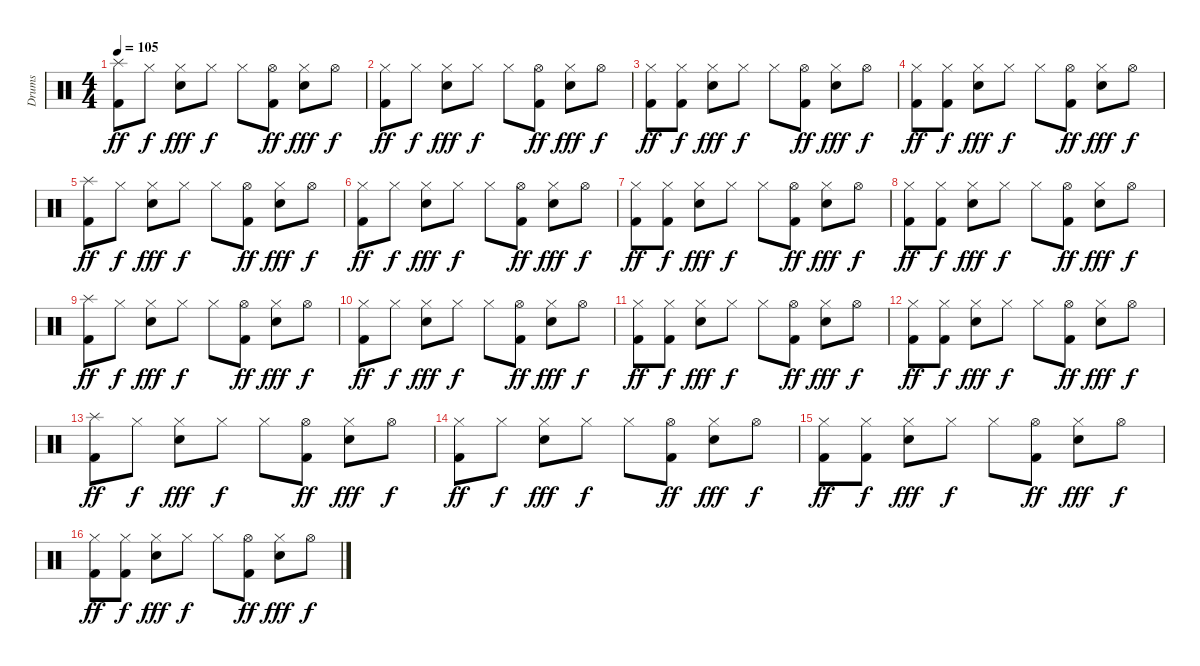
\track ("Drums" "Drums") {instrument percussion}
\staff {score}
\articulation defaults
\ts (4 4)
\tempo 105
\clef neutral
\ks c
("Splash (hit)" "Kick (hit) 2").8{dy ff} "Hi-Hat (closed)".8{dy f} ("Hi-Hat (closed)" "Electric Snare (hit)").8{dy fff} "Hi-Hat (closed)".8{dy f} "Hi-Hat (closed)".8 ("Hi-Hat (open)" "Kick (hit) 2").8{dy ff} ("Hi-Hat (closed)" "Electric Snare (hit)").8{dy fff} "Hi-Hat (open)".8{dy f} |
("Hi-Hat (closed)" "Kick (hit) 2").8{dy ff} "Hi-Hat (closed)".8{dy f} ("Hi-Hat (closed)" "Electric Snare (hit)").8{dy fff} "Hi-Hat (closed)".8{dy f} "Hi-Hat (closed)".8 ("Hi-Hat (open)" "Kick (hit) 2").8{dy ff} ("Hi-Hat (closed)" "Electric Snare (hit)").8{dy fff} "Hi-Hat (open)".8{dy f} |
("Hi-Hat (closed)" "Kick (hit) 2").8{dy ff} ("Hi-Hat (closed)" "Kick (hit) 2").8{dy f} ("Hi-Hat (closed)" "Electric Snare (hit)").8{dy fff} "Hi-Hat (closed)".8{dy f} "Hi-Hat (closed)".8 ("Hi-Hat (open)" "Kick (hit) 2").8{dy ff} ("Hi-Hat (closed)" "Electric Snare (hit)").8{dy fff} "Hi-Hat (open)".8{dy f} |
("Hi-Hat (closed)" "Kick (hit) 2").8{dy ff} ("Hi-Hat (closed)" "Kick (hit) 2").8{dy f} ("Hi-Hat (closed)" "Electric Snare (hit)").8{dy fff} "Hi-Hat (closed)".8{dy f} "Hi-Hat (closed)".8 ("Hi-Hat (open)" "Kick (hit) 2").8{dy ff} ("Hi-Hat (closed)" "Electric Snare (hit)").8{dy fff} "Hi-Hat (open)".8{dy f} |
("Splash (hit)" "Kick (hit) 2").8{dy ff} "Hi-Hat (closed)".8{dy f} ("Hi-Hat (closed)" "Electric Snare (hit)").8{dy fff} "Hi-Hat (closed)".8{dy f} "Hi-Hat (closed)".8 ("Hi-Hat (open)" "Kick (hit) 2").8{dy ff} ("Hi-Hat (closed)" "Electric Snare (hit)").8{dy fff} "Hi-Hat (open)".8{dy f} |
("Hi-Hat (closed)" "Kick (hit) 2").8{dy ff} "Hi-Hat (closed)".8{dy f} ("Hi-Hat (closed)" "Electric Snare (hit)").8{dy fff} "Hi-Hat (closed)".8{dy f} "Hi-Hat (closed)".8 ("Hi-Hat (open)" "Kick (hit) 2").8{dy ff} ("Hi-Hat (closed)" "Electric Snare (hit)").8{dy fff} "Hi-Hat (open)".8{dy f} |
("Hi-Hat (closed)" "Kick (hit) 2").8{dy ff} ("Hi-Hat (closed)" "Kick (hit) 2").8{dy f} ("Hi-Hat (closed)" "Electric Snare (hit)").8{dy fff} "Hi-Hat (closed)".8{dy f} "Hi-Hat (closed)".8 ("Hi-Hat (open)" "Kick (hit) 2").8{dy ff} ("Hi-Hat (closed)" "Electric Snare (hit)").8{dy fff} "Hi-Hat (open)".8{dy f} |
("Hi-Hat (closed)" "Kick (hit) 2").8{dy ff} ("Hi-Hat (closed)" "Kick (hit) 2").8{dy f} ("Hi-Hat (closed)" "Electric Snare (hit)").8{dy fff} "Hi-Hat (closed)".8{dy f} "Hi-Hat (closed)".8 ("Hi-Hat (open)" "Kick (hit) 2").8{dy ff} ("Hi-Hat (closed)" "Electric Snare (hit)").8{dy fff} "Hi-Hat (open)".8{dy f} |
("Splash (hit)" "Kick (hit) 2").8{dy ff} "Hi-Hat (closed)".8{dy f} ("Hi-Hat (closed)" "Electric Snare (hit)").8{dy fff} "Hi-Hat (closed)".8{dy f} "Hi-Hat (closed)".8 ("Hi-Hat (open)" "Kick (hit) 2").8{dy ff} ("Hi-Hat (closed)" "Electric Snare (hit)").8{dy fff} "Hi-Hat (open)".8{dy f} |
("Hi-Hat (closed)" "Kick (hit) 2").8{dy ff} "Hi-Hat (closed)".8{dy f} ("Hi-Hat (closed)" "Electric Snare (hit)").8{dy fff} "Hi-Hat (closed)".8{dy f} "Hi-Hat (closed)".8 ("Hi-Hat (open)" "Kick (hit) 2").8{dy ff} ("Hi-Hat (closed)" "Electric Snare (hit)").8{dy fff} "Hi-Hat (open)".8{dy f} |
("Hi-Hat (closed)" "Kick (hit) 2").8{dy ff} ("Hi-Hat (closed)" "Kick (hit) 2").8{dy f} ("Hi-Hat (closed)" "Electric Snare (hit)").8{dy fff} "Hi-Hat (closed)".8{dy f} "Hi-Hat (closed)".8 ("Hi-Hat (open)" "Kick (hit) 2").8{dy ff} ("Hi-Hat (closed)" "Electric Snare (hit)").8{dy fff} "Hi-Hat (open)".8{dy f} |
("Hi-Hat (closed)" "Kick (hit) 2").8{dy ff} ("Hi-Hat (closed)" "Kick (hit) 2").8{dy f} ("Hi-Hat (closed)" "Electric Snare (hit)").8{dy fff} "Hi-Hat (closed)".8{dy f} "Hi-Hat (closed)".8 ("Hi-Hat (open)" "Kick (hit) 2").8{dy ff} ("Hi-Hat (closed)" "Electric Snare (hit)").8{dy fff} "Hi-Hat (open)".8{dy f} |
("Splash (hit)" "Kick (hit) 2").8{dy ff} "Hi-Hat (closed)".8{dy f} ("Hi-Hat (closed)" "Electric Snare (hit)").8{dy fff} "Hi-Hat (closed)".8{dy f} "Hi-Hat (closed)".8 ("Hi-Hat (open)" "Kick (hit) 2").8{dy ff} ("Hi-Hat (closed)" "Electric Snare (hit)").8{dy fff} "Hi-Hat (open)".8{dy f} |
("Hi-Hat (closed)" "Kick (hit) 2").8{dy ff} "Hi-Hat (closed)".8{dy f} ("Hi-Hat (closed)" "Electric Snare (hit)").8{dy fff} "Hi-Hat (closed)".8{dy f} "Hi-Hat (closed)".8 ("Hi-Hat (open)" "Kick (hit) 2").8{dy ff} ("Hi-Hat (closed)" "Electric Snare (hit)").8{dy fff} "Hi-Hat (open)".8{dy f} |
("Hi-Hat (closed)" "Kick (hit) 2").8{dy ff} ("Hi-Hat (closed)" "Kick (hit) 2").8{dy f} ("Hi-Hat (closed)" "Electric Snare (hit)").8{dy fff} "Hi-Hat (closed)".8{dy f} "Hi-Hat (closed)".8 ("Hi-Hat (open)" "Kick (hit) 2").8{dy ff} ("Hi-Hat (closed)" "Electric Snare (hit)").8{dy fff} "Hi-Hat (open)".8{dy f} |
("Hi-Hat (closed)" "Kick (hit) 2").8{dy ff} ("Hi-Hat (closed)" "Kick (hit) 2").8{dy f} ("Hi-Hat (closed)" "Electric Snare (hit)").8{dy fff} "Hi-Hat (closed)".8{dy f} "Hi-Hat (closed)".8 ("Hi-Hat (open)" "Kick (hit) 2").8{dy ff} ("Hi-Hat (closed)" "Electric Snare (hit)").8{dy fff} "Hi-Hat (open)".8{dy f}
